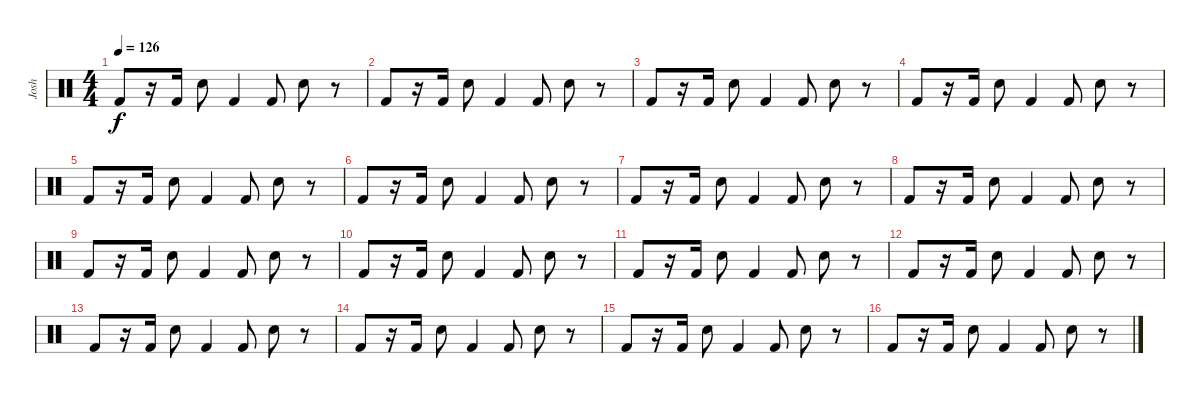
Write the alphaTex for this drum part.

\track ("Josh" "Josh") {instrument percussion}
\staff {score}
\articulation defaults
\ts (4 4)
\tempo 126
\clef neutral
\ks c "Kick (hit) 2".8{dy f}
r.16 "Kick (hit) 2".16 "Snare (hit) 2".8 "Kick (hit) 2".4 "Kick (hit) 2".8 "Snare (hit) 2".8 r.8 |
"Kick (hit) 2".8 r.16 "Kick (hit) 2".16 "Snare (hit) 2".8 "Kick (hit) 2".4 "Kick (hit) 2".8 "Snare (hit) 2".8 r.8 |
"Kick (hit) 2".8 r.16 "Kick (hit) 2".16 "Snare (hit) 2".8 "Kick (hit) 2".4 "Kick (hit) 2".8 "Snare (hit) 2".8 r.8 |
"Kick (hit) 2".8 r.16 "Kick (hit) 2".16 "Snare (hit) 2".8 "Kick (hit) 2".4 "Kick (hit) 2".8 "Snare (hit) 2".8 r.8 |
"Kick (hit) 2".8 r.16 "Kick (hit) 2".16 "Snare (hit) 2".8 "Kick (hit) 2".4 "Kick (hit) 2".8 "Snare (hit) 2".8 r.8 |
"Kick (hit) 2".8 r.16 "Kick (hit) 2".16 "Snare (hit) 2".8 "Kick (hit) 2".4 "Kick (hit) 2".8 "Snare (hit) 2".8 r.8 |
"Kick (hit) 2".8 r.16 "Kick (hit) 2".16 "Snare (hit) 2".8 "Kick (hit) 2".4 "Kick (hit) 2".8 "Snare (hit) 2".8 r.8 |
"Kick (hit) 2".8 r.16 "Kick (hit) 2".16 "Snare (hit) 2".8 "Kick (hit) 2".4 "Kick (hit) 2".8 "Snare (hit) 2".8 r.8 |
"Kick (hit) 2".8 r.16 "Kick (hit) 2".16 "Snare (hit) 2".8 "Kick (hit) 2".4 "Kick (hit) 2".8 "Snare (hit) 2".8 r.8 |
"Kick (hit) 2".8 r.16 "Kick (hit) 2".16 "Snare (hit) 2".8 "Kick (hit) 2".4 "Kick (hit) 2".8 "Snare (hit) 2".8 r.8 |
"Kick (hit) 2".8 r.16 "Kick (hit) 2".16 "Snare (hit) 2".8 "Kick (hit) 2".4 "Kick (hit) 2".8 "Snare (hit) 2".8 r.8 |
"Kick (hit) 2".8 r.16 "Kick (hit) 2".16 "Snare (hit) 2".8 "Kick (hit) 2".4 "Kick (hit) 2".8 "Snare (hit) 2".8 r.8 |
"Kick (hit) 2".8 r.16 "Kick (hit) 2".16 "Snare (hit) 2".8 "Kick (hit) 2".4 "Kick (hit) 2".8 "Snare (hit) 2".8 r.8 |
"Kick (hit) 2".8 r.16 "Kick (hit) 2".16 "Snare (hit) 2".8 "Kick (hit) 2".4 "Kick (hit) 2".8 "Snare (hit) 2".8 r.8 |
"Kick (hit) 2".8 r.16 "Kick (hit) 2".16 "Snare (hit) 2".8 "Kick (hit) 2".4 "Kick (hit) 2".8 "Snare (hit) 2".8 r.8 |
"Kick (hit) 2".8 r.16 "Kick (hit) 2".16 "Snare (hit) 2".8 "Kick (hit) 2".4 "Kick (hit) 2".8 "Snare (hit) 2".8 r.8
